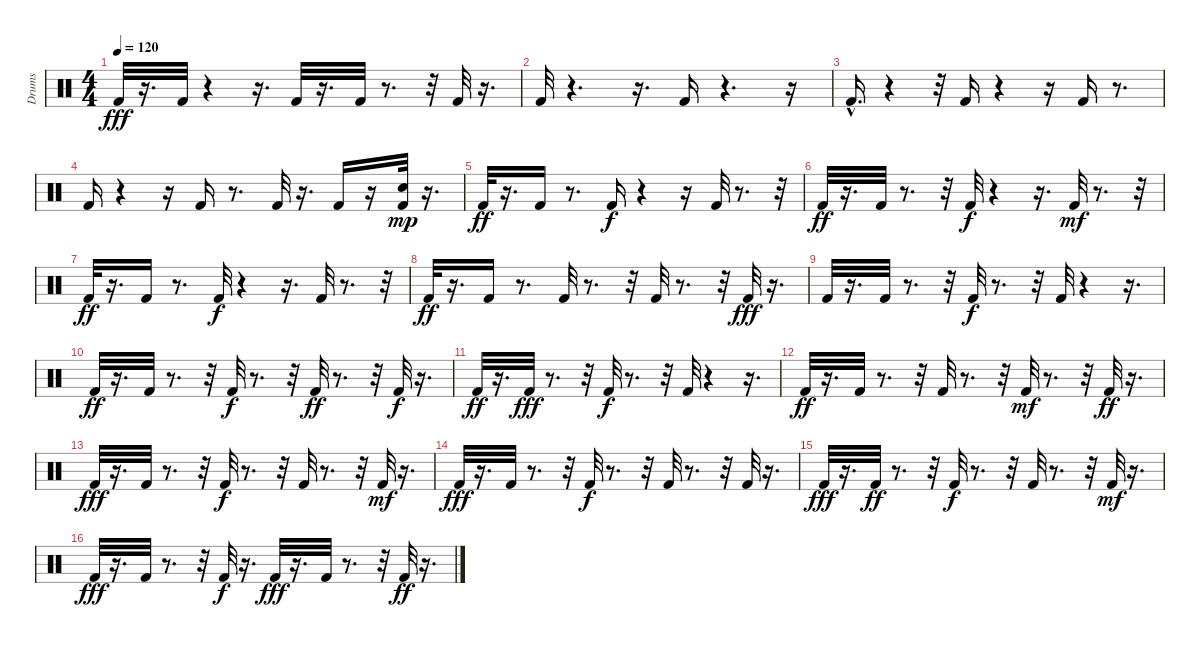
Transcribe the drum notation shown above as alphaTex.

\track ("Drums" "Drums") {instrument percussion}
\staff {score}
\articulation defaults
\ts (4 4)
\tempo 120
\clef neutral
\ks c "Kick (hit) 2".32{dy fff}
r.16{d} "Kick (hit) 2".32 r.4 r.16{d} "Kick (hit) 2".32 r.16{d} "Kick (hit) 2".32 r.8{d} r.32 "Kick (hit) 2".32 r.16{d} |
"Kick (hit) 2".32 r.4{d} r.16{d} "Kick (hit) 2".16 r.4{d} r.16 |
"Kick (hit) 2"{hac}.16{d} r.4 r.32 "Kick (hit) 2".16 r.4 r.16 "Kick (hit) 2".16 r.8{d} |
"Kick (hit) 2".16 r.4 r.16 "Kick (hit) 2".16 r.8{d} "Kick (hit) 2".32 r.16{d} "Kick (hit) 2".16 r.16 ("Kick (hit) 2" "Snare (hit) 2").32{dy mp} r.16{d} |
"Kick (hit) 2".32{dy ff} r.16{d} "Kick (hit) 2".16 r.8{d} "Kick (hit) 2".16{dy f} r.4 r.16 "Kick (hit) 2".32 r.8{d} r.32 |
"Kick (hit) 2".32{dy ff} r.16{d} "Kick (hit) 2".32 r.8{d} r.32 "Kick (hit) 2".32{dy f} r.4 r.16{d} "Kick (hit) 2".32{dy mf} r.8{d} r.32 |
"Kick (hit) 2".32{dy ff} r.16{d} "Kick (hit) 2".16 r.8{d} "Kick (hit) 2".32{dy f} r.4 r.16{d} "Kick (hit) 2".32 r.8{d} r.32 |
"Kick (hit) 2".32{dy ff} r.16{d} "Kick (hit) 2".16 r.8{d} "Kick (hit) 2".32 r.8{d} r.32 "Kick (hit) 2".32 r.8{d} r.32 "Kick (hit) 2".32{dy fff} r.16{d} |
"Kick (hit) 2".32 r.16{d} "Kick (hit) 2".32 r.8{d} r.32 "Kick (hit) 2".32{dy f} r.8{d} r.32 "Kick (hit) 2".32 r.4 r.16{d} |
"Kick (hit) 2".32{dy ff} r.16{d} "Kick (hit) 2".32 r.8{d} r.32 "Kick (hit) 2".32{dy f} r.8{d} r.32 "Kick (hit) 2".32{dy ff} r.8{d} r.32 "Kick (hit) 2".32{dy f} r.16{d} |
"Kick (hit) 2".32{dy ff} r.16{d} "Kick (hit) 2".32{dy fff} r.8{d} r.32 "Kick (hit) 2".32{dy f} r.8{d} r.32 "Kick (hit) 2".32 r.4 r.16{d} |
"Kick (hit) 2".32{dy ff} r.16{d} "Kick (hit) 2".32 r.8{d} r.32 "Kick (hit) 2".32 r.8{d} r.32 "Kick (hit) 2".32{dy mf} r.8{d} r.32 "Kick (hit) 2".32{dy ff} r.16{d} |
"Kick (hit) 2".32{dy fff} r.16{d} "Kick (hit) 2".32 r.8{d} r.32 "Kick (hit) 2".32{dy f} r.8{d} r.32 "Kick (hit) 2".32 r.8{d} r.32 "Kick (hit) 2".32{dy mf} r.16{d} |
"Kick (hit) 2".32{dy fff} r.16{d} "Kick (hit) 2".32 r.8{d} r.32 "Kick (hit) 2".32{dy f} r.8{d} r.32 "Kick (hit) 2".32 r.8{d} r.32 "Kick (hit) 2".32 r.16{d} |
"Kick (hit) 2".32{dy fff} r.16{d} "Kick (hit) 2".32{dy ff} r.8{d} r.32 "Kick (hit) 2".32{dy f} r.8{d} r.32 "Kick (hit) 2".32 r.8{d} r.32 "Kick (hit) 2".32{dy mf} r.16{d} |
"Kick (hit) 2".32{dy fff} r.16{d} "Kick (hit) 2".32 r.8{d} r.32 "Kick (hit) 2".32{dy f} r.16{d} "Kick (hit) 2".32{dy fff} r.16{d} "Kick (hit) 2".32 r.8{d} r.32 "Kick (hit) 2".32{dy ff} r.16{d}
